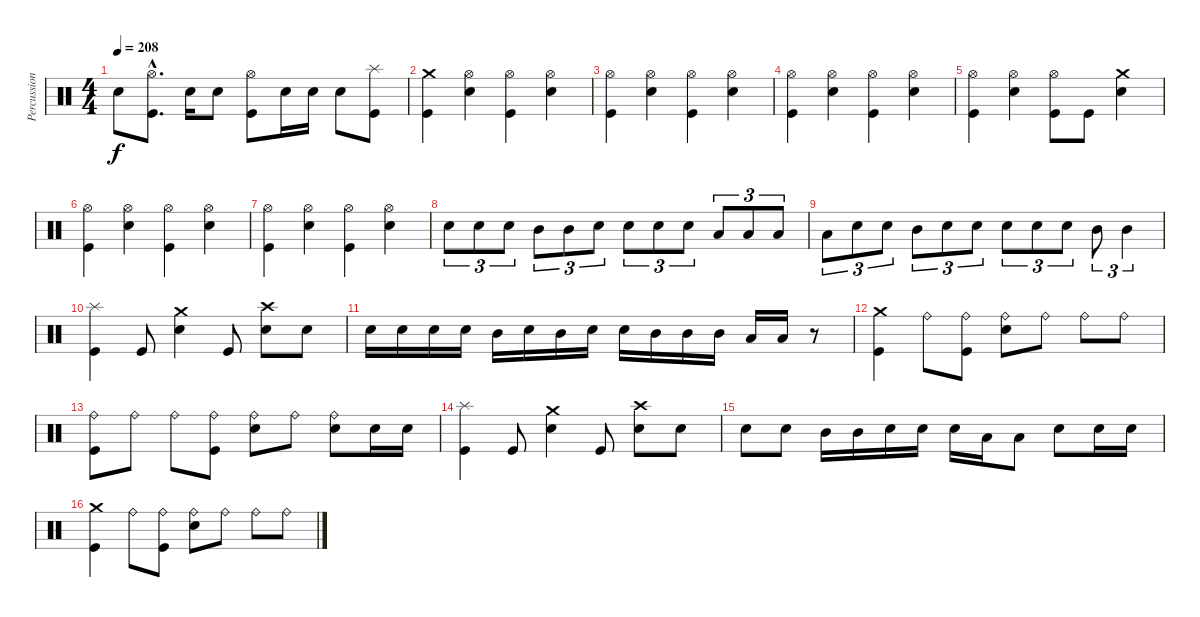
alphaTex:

\track ("Percussions" "Percussion") {instrument percussion}
\staff {score}
\articulation defaults
\ts (4 4)
\tempo 208
\clef neutral
\ks c "Electric Snare (hit)".8{dy f}
("Kick (hit)"{hac} "Hi-Hat (open)"{hac}).8{d} "Electric Snare (hit)".16 "Electric Snare (hit)".8 ("Kick (hit)" "Hi-Hat (open)").8 "Electric Snare (hit)".16 "Electric Snare (hit)".16 "Electric Snare (hit)".8 ("Kick (hit)" "Splash (hit)").8 |
("Kick (hit)" "Crash medium (hit)").4 ("Electric Snare (hit)" "Hi-Hat (open)").4 ("Kick (hit)" "Hi-Hat (open)").4 ("Electric Snare (hit)" "Hi-Hat (open)").4 |
("Kick (hit)" "Hi-Hat (open)").4 ("Electric Snare (hit)" "Hi-Hat (open)").4 ("Kick (hit)" "Hi-Hat (open)").4 ("Electric Snare (hit)" "Hi-Hat (open)").4 |
("Kick (hit)" "Hi-Hat (open)").4 ("Electric Snare (hit)" "Hi-Hat (open)").4 ("Kick (hit)" "Hi-Hat (open)").4 ("Electric Snare (hit)" "Hi-Hat (open)").4 |
("Kick (hit)" "Hi-Hat (open)").4 ("Electric Snare (hit)" "Hi-Hat (open)").4 ("Kick (hit)" "Hi-Hat (open)").8 "Kick (hit)".8 ("Electric Snare (hit)" "Crash medium (hit)").4 |
("Kick (hit)" "Hi-Hat (open)").4 ("Electric Snare (hit)" "Hi-Hat (open)").4 ("Kick (hit)" "Hi-Hat (open)").4 ("Electric Snare (hit)" "Hi-Hat (open)").4 |
("Kick (hit)" "Hi-Hat (open)").4 ("Electric Snare (hit)" "Hi-Hat (open)").4 ("Kick (hit)" "Hi-Hat (open)").4 ("Electric Snare (hit)" "Hi-Hat (open)").4 |
"Electric Snare (hit)".8{tu (3 2)} "Electric Snare (hit)".8{tu (3 2)} "Electric Snare (hit)".8{tu (3 2)} "Mid Tom (hit)".8{tu (3 2)} "Mid Tom (hit)".8{tu (3 2)} "Electric Snare (hit)".8{tu (3 2)} "Electric Snare (hit)".8{tu (3 2)} "Electric Snare (hit)".8{tu (3 2)} "Electric Snare (hit)".8{tu (3 2)} "Low Tom (hit)".8{tu (3 2)} "Low Tom (hit)".8{tu (3 2)} "Low Tom (hit)".8{tu (3 2)} |
"Low Tom (hit)".8{tu (3 2)} "Electric Snare (hit)".8{tu (3 2)} "Electric Snare (hit)".8{tu (3 2)} "Mid Tom (hit)".8{tu (3 2)} "Electric Snare (hit)".8{tu (3 2)} "Electric Snare (hit)".8{tu (3 2)} "Electric Snare (hit)".8{tu (3 2)} "Electric Snare (hit)".8{tu (3 2)} "Electric Snare (hit)".8{tu (3 2)} "Mid Tom (hit)".8{tu (3 2)} "Mid Tom (hit)".4{tu (3 2)} |
("Kick (hit)" "Splash (hit)").4 "Kick (hit)".8 ("Electric Snare (hit)" "Crash medium (hit)").4 "Kick (hit)".8 ("Electric Snare (hit)" "Crash high (hit)").8 "Electric Snare (hit)".8 |
"Electric Snare (hit)".16 "Electric Snare (hit)".16 "Electric Snare (hit)".16 "Electric Snare (hit)".16 "Mid Tom (hit)".16 "Electric Snare (hit)".16 "Mid Tom (hit)".16 "Electric Snare (hit)".16 "Electric Snare (hit)".16 "Mid Tom (hit)".16 "Mid Tom (hit)".16 "Mid Tom (hit)".16 "Low Tom (hit)".16 "Low Tom (hit)".16 r.8 |
("Kick (hit)" "Crash medium (hit)").4 "Ride (bell)".8 ("Kick (hit)" "Ride (bell)").8 ("Electric Snare (hit)" "Ride (bell)").8 "Ride (bell)".8 "Ride (bell)".8 "Ride (bell)".8 |
("Kick (hit)" "Ride (bell)").8 "Ride (bell)".8 "Ride (bell)".8 ("Kick (hit)" "Ride (bell)").8 ("Electric Snare (hit)" "Ride (bell)").8 "Ride (bell)".8 ("Electric Snare (hit)" "Ride (bell)").8 "Electric Snare (hit)".16 "Electric Snare (hit)".16 |
("Kick (hit)" "Splash (hit)").4 "Kick (hit)".8 ("Electric Snare (hit)" "Crash medium (hit)").4 "Kick (hit)".8 ("Electric Snare (hit)" "Crash high (hit)").8 "Electric Snare (hit)".8 |
"Electric Snare (hit)".8 "Electric Snare (hit)".8 "Mid Tom (hit)".16 "Mid Tom (hit)".16 "Electric Snare (hit)".16 "Electric Snare (hit)".16 "Electric Snare (hit)".16 "Low Tom (hit)".16 "Low Tom (hit)".8 "Electric Snare (hit)".8 "Electric Snare (hit)".16 "Electric Snare (hit)".16 |
("Kick (hit)" "Crash medium (hit)").4 "Ride (bell)".8 ("Kick (hit)" "Ride (bell)").8 ("Electric Snare (hit)" "Ride (bell)").8 "Ride (bell)".8 "Ride (bell)".8 "Ride (bell)".8
